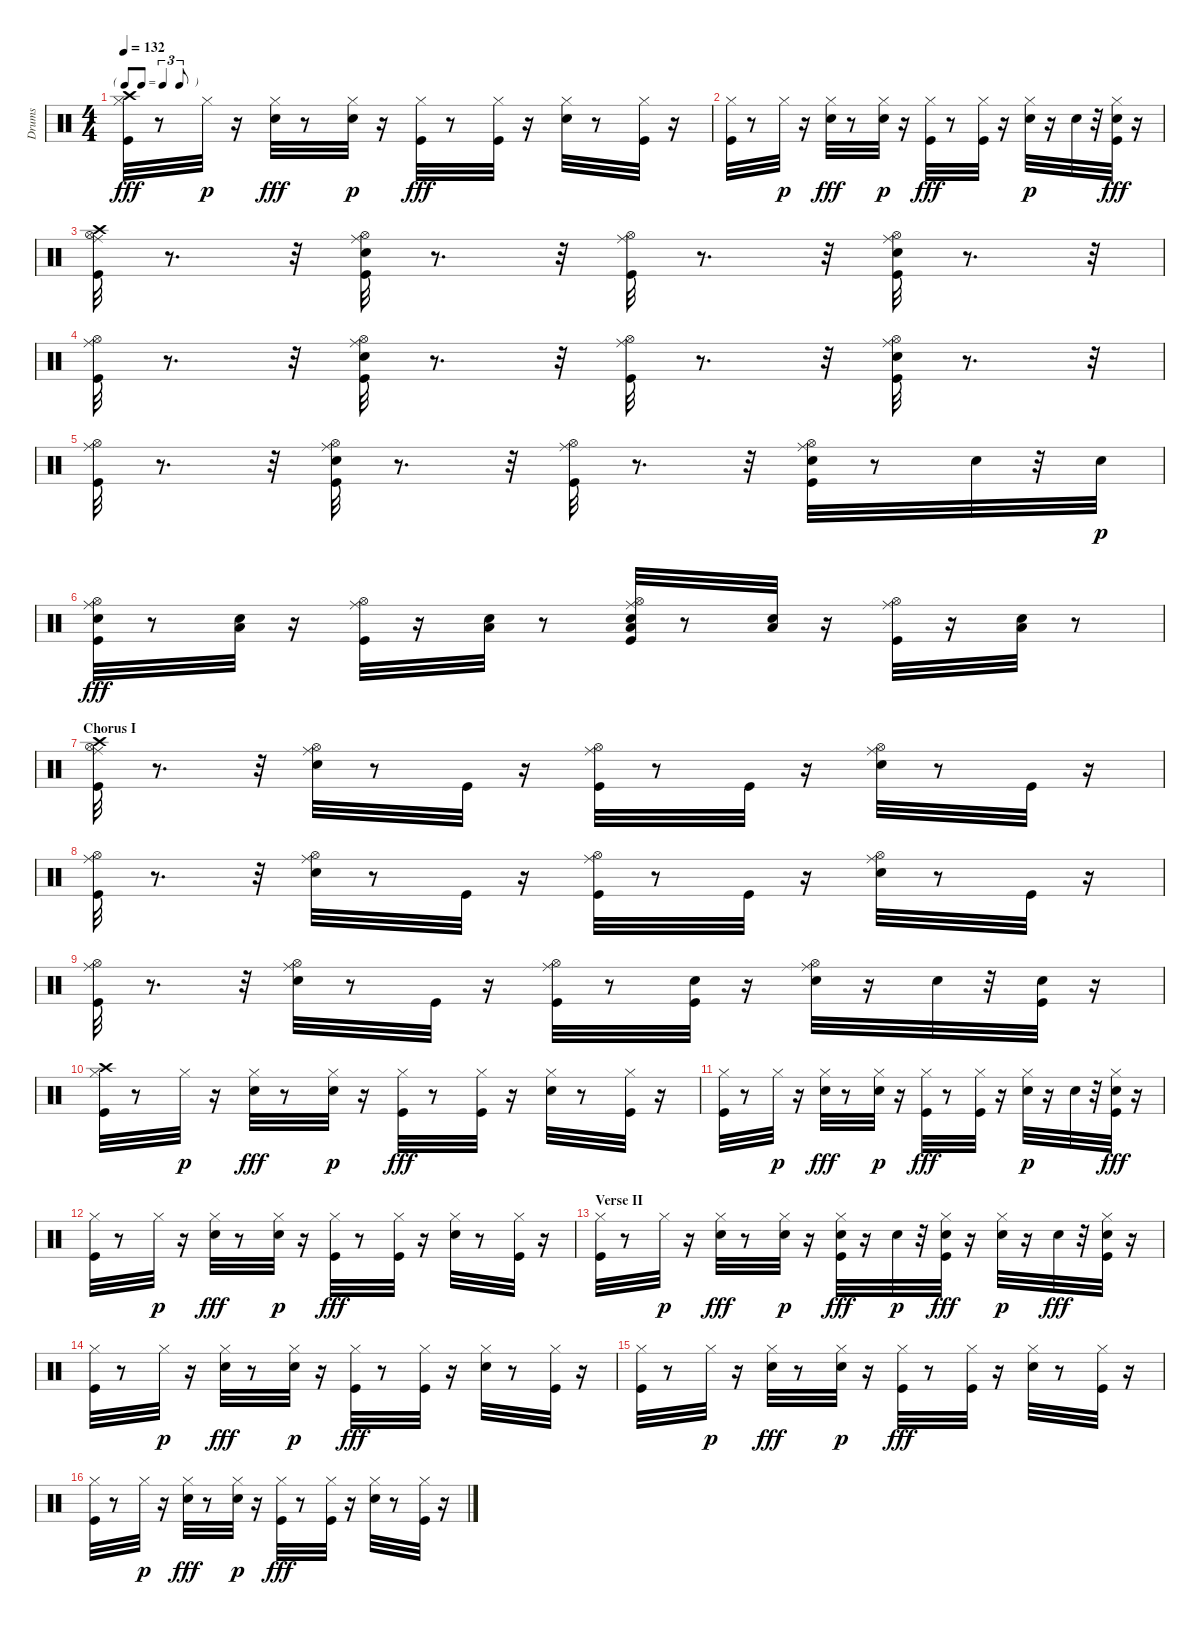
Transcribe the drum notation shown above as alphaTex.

\track ("Drums" "Drums") {instrument percussion}
\staff {score}
\articulation defaults
\ts (4 4)
\tf triplet8th
\tempo 132
\clef neutral
\ks c
("Hi-Hat (closed)" "Kick (hit)" "Crash high (hit)").32{dy fff} r.8 "Hi-Hat (closed)".32{dy p} r.16 ("Hi-Hat (closed)" "Snare (hit) 2").32{dy fff} r.8 ("Hi-Hat (closed)" "Snare (hit) 2").32{dy p} r.16 ("Hi-Hat (closed)" "Kick (hit)").32{dy fff} r.8 ("Hi-Hat (closed)" "Kick (hit)").32 r.16 ("Hi-Hat (closed)" "Snare (hit) 2").32 r.8 ("Hi-Hat (closed)" "Kick (hit)").32 r.16 |
("Hi-Hat (closed)" "Kick (hit)").32 r.8 "Hi-Hat (closed)".32{dy p} r.16 ("Hi-Hat (closed)" "Snare (hit) 2").32{dy fff} r.8 ("Hi-Hat (closed)" "Snare (hit) 2").32{dy p} r.16 ("Hi-Hat (closed)" "Kick (hit)").32{dy fff} r.8 ("Hi-Hat (closed)" "Kick (hit)").32 r.16 ("Hi-Hat (closed)" "Snare (hit) 2").32{dy p} r.16 "Snare (hit) 2".32 r.32 ("Hi-Hat (closed)" "Snare (hit) 2" "Kick (hit)").32{dy fff} r.16 |
("Kick (hit)" "Crash high (hit)" "Ride (middle)" "Hi-Hat (open)").32 r.8{d} r.32 ("Snare (hit) 2" "Kick (hit)" "Ride (middle)" "Hi-Hat (open)").32 r.8{d} r.32 ("Kick (hit)" "Ride (middle)" "Hi-Hat (open)").32 r.8{d} r.32 ("Snare (hit) 2" "Kick (hit)" "Ride (middle)" "Hi-Hat (open)").32 r.8{d} r.32 |
("Kick (hit)" "Ride (middle)" "Hi-Hat (open)").32 r.8{d} r.32 ("Snare (hit) 2" "Kick (hit)" "Ride (middle)" "Hi-Hat (open)").32 r.8{d} r.32 ("Kick (hit)" "Ride (middle)" "Hi-Hat (open)").32 r.8{d} r.32 ("Snare (hit) 2" "Kick (hit)" "Ride (middle)" "Hi-Hat (open)").32 r.8{d} r.32 |
("Kick (hit)" "Ride (middle)" "Hi-Hat (open)").32 r.8{d} r.32 ("Snare (hit) 2" "Kick (hit)" "Ride (middle)" "Hi-Hat (open)").32 r.8{d} r.32 ("Kick (hit)" "Ride (middle)" "Hi-Hat (open)").32 r.8{d} r.32 ("Snare (hit) 2" "Kick (hit)" "Ride (middle)" "Hi-Hat (open)").32 r.8 "Snare (hit) 2".32 r.32 "Snare (hit) 2".32{dy p} |
("Snare (hit) 2" "Kick (hit)" "Ride (middle)" "Hi-Hat (open)").32{dy fff} r.8 ("Snare (hit) 2" "Low Tom (hit)").32 r.16 ("Kick (hit)" "Ride (middle)" "Hi-Hat (open)").32 r.16 ("Snare (hit) 2" "Low Tom (hit)").32 r.8 ("Snare (hit) 2" "Low Tom (hit)" "Kick (hit)" "Ride (middle)" "Hi-Hat (open)").32 r.8 ("Snare (hit) 2" "Low Tom (hit)").32 r.16 ("Kick (hit)" "Ride (middle)" "Hi-Hat (open)").32 r.16 ("Snare (hit) 2" "Low Tom (hit)").32 r.8 |
\section ("" "Chorus I")
("Kick (hit)" "Crash high (hit)" "Ride (middle)" "Hi-Hat (open)").32 r.8{d} r.32 ("Snare (hit) 2" "Ride (middle)" "Hi-Hat (open)").32 r.8 "Kick (hit)".32 r.16 ("Kick (hit)" "Ride (middle)" "Hi-Hat (open)").32 r.8 "Kick (hit)".32 r.16 ("Snare (hit) 2" "Ride (middle)" "Hi-Hat (open)").32 r.8 "Kick (hit)".32 r.16 |
("Kick (hit)" "Ride (middle)" "Hi-Hat (open)").32 r.8{d} r.32 ("Snare (hit) 2" "Ride (middle)" "Hi-Hat (open)").32 r.8 "Kick (hit)".32 r.16 ("Kick (hit)" "Ride (middle)" "Hi-Hat (open)").32 r.8 "Kick (hit)".32 r.16 ("Snare (hit) 2" "Ride (middle)" "Hi-Hat (open)").32 r.8 "Kick (hit)".32 r.16 |
("Kick (hit)" "Ride (middle)" "Hi-Hat (open)").32 r.8{d} r.32 ("Snare (hit) 2" "Ride (middle)" "Hi-Hat (open)").32 r.8 "Kick (hit)".32 r.16 ("Kick (hit)" "Ride (middle)" "Hi-Hat (open)").32 r.8 ("Snare (hit) 2" "Kick (hit)").32 r.16 ("Snare (hit) 2" "Ride (middle)" "Hi-Hat (open)").32 r.16 "Snare (hit) 2".32 r.32 ("Snare (hit) 2" "Kick (hit)").32 r.16 |
("Hi-Hat (closed)" "Kick (hit)" "Crash high (hit)").32 r.8 "Hi-Hat (closed)".32{dy p} r.16 ("Hi-Hat (closed)" "Snare (hit) 2").32{dy fff} r.8 ("Hi-Hat (closed)" "Snare (hit) 2").32{dy p} r.16 ("Hi-Hat (closed)" "Kick (hit)").32{dy fff} r.8 ("Hi-Hat (closed)" "Kick (hit)").32 r.16 ("Hi-Hat (closed)" "Snare (hit) 2").32 r.8 ("Hi-Hat (closed)" "Kick (hit)").32 r.16 |
("Hi-Hat (closed)" "Kick (hit)").32 r.8 "Hi-Hat (closed)".32{dy p} r.16 ("Hi-Hat (closed)" "Snare (hit) 2").32{dy fff} r.8 ("Hi-Hat (closed)" "Snare (hit) 2").32{dy p} r.16 ("Hi-Hat (closed)" "Kick (hit)").32{dy fff} r.8 ("Hi-Hat (closed)" "Kick (hit)").32 r.16 ("Hi-Hat (closed)" "Snare (hit) 2").32{dy p} r.16 "Snare (hit) 2".32 r.32 ("Hi-Hat (closed)" "Snare (hit) 2" "Kick (hit)").32{dy fff} r.16 |
("Hi-Hat (closed)" "Kick (hit)").32 r.8 "Hi-Hat (closed)".32{dy p} r.16 ("Hi-Hat (closed)" "Snare (hit) 2").32{dy fff} r.8 ("Hi-Hat (closed)" "Snare (hit) 2").32{dy p} r.16 ("Hi-Hat (closed)" "Kick (hit)").32{dy fff} r.8 ("Hi-Hat (closed)" "Kick (hit)").32 r.16 ("Hi-Hat (closed)" "Snare (hit) 2").32 r.8 ("Hi-Hat (closed)" "Kick (hit)").32 r.16 |
\section ("" "Verse II")
("Hi-Hat (closed)" "Kick (hit)").32 r.8 "Hi-Hat (closed)".32{dy p} r.16 ("Hi-Hat (closed)" "Snare (hit) 2").32{dy fff} r.8 ("Hi-Hat (closed)" "Snare (hit) 2").32{dy p} r.16 ("Hi-Hat (closed)" "Snare (hit) 2" "Kick (hit)").32{dy fff} r.16 "Snare (hit) 2".32{dy p} r.32 ("Hi-Hat (closed)" "Snare (hit) 2" "Kick (hit)").32{dy fff} r.16 ("Hi-Hat (closed)" "Snare (hit) 2").32{dy p} r.16 "Snare (hit) 2".32{dy fff} r.32 ("Hi-Hat (closed)" "Snare (hit) 2" "Kick (hit)").32 r.16 |
("Hi-Hat (closed)" "Kick (hit)").32 r.8 "Hi-Hat (closed)".32{dy p} r.16 ("Hi-Hat (closed)" "Snare (hit) 2").32{dy fff} r.8 ("Hi-Hat (closed)" "Snare (hit) 2").32{dy p} r.16 ("Hi-Hat (closed)" "Kick (hit)").32{dy fff} r.8 ("Hi-Hat (closed)" "Kick (hit)").32 r.16 ("Hi-Hat (closed)" "Snare (hit) 2").32 r.8 ("Hi-Hat (closed)" "Kick (hit)").32 r.16 |
("Hi-Hat (closed)" "Kick (hit)").32 r.8 "Hi-Hat (closed)".32{dy p} r.16 ("Hi-Hat (closed)" "Snare (hit) 2").32{dy fff} r.8 ("Hi-Hat (closed)" "Snare (hit) 2").32{dy p} r.16 ("Hi-Hat (closed)" "Kick (hit)").32{dy fff} r.8 ("Hi-Hat (closed)" "Kick (hit)").32 r.16 ("Hi-Hat (closed)" "Snare (hit) 2").32 r.8 ("Hi-Hat (closed)" "Kick (hit)").32 r.16 |
("Hi-Hat (closed)" "Kick (hit)").32 r.8 "Hi-Hat (closed)".32{dy p} r.16 ("Hi-Hat (closed)" "Snare (hit) 2").32{dy fff} r.8 ("Hi-Hat (closed)" "Snare (hit) 2").32{dy p} r.16 ("Hi-Hat (closed)" "Kick (hit)").32{dy fff} r.8 ("Hi-Hat (closed)" "Kick (hit)").32 r.16 ("Hi-Hat (closed)" "Snare (hit) 2").32 r.8 ("Hi-Hat (closed)" "Kick (hit)").32 r.16
